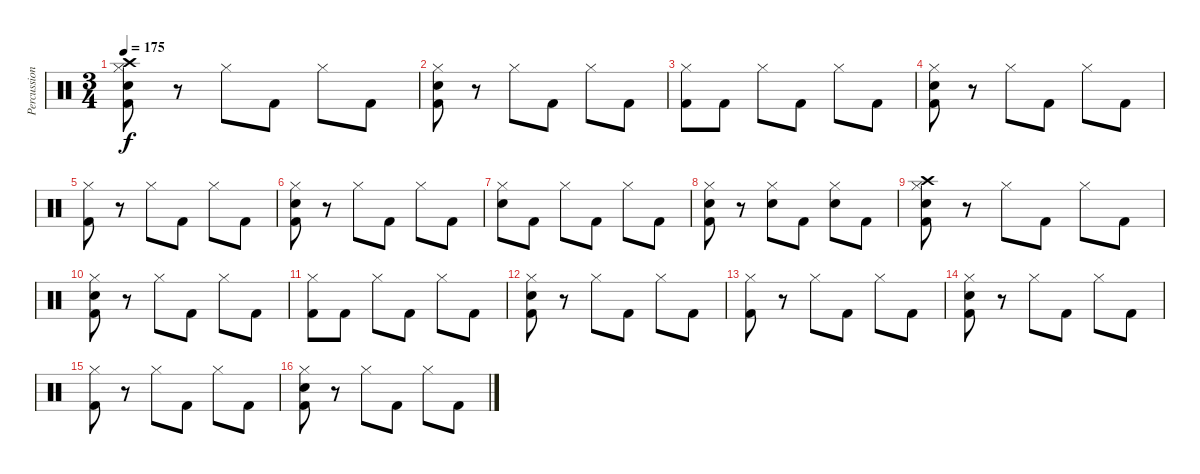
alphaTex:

\track ("Percussion" "Percussion") {instrument percussion}
\staff {score}
\articulation defaults
\ts (3 4)
\tempo 175
\clef neutral
\ks c
("Hi-Hat (closed)" "Crash high (hit)" "Electric Snare (hit)" "Kick (hit) 2").8{dy f} r.8 "Hi-Hat (closed)".8 "Kick (hit) 2".8 "Hi-Hat (closed)".8 "Kick (hit) 2".8 |
("Hi-Hat (closed)" "Electric Snare (hit)" "Kick (hit) 2").8 r.8 "Hi-Hat (closed)".8 "Kick (hit) 2".8 "Hi-Hat (closed)".8 "Kick (hit) 2".8 |
("Hi-Hat (closed)" "Kick (hit) 2").8 "Kick (hit) 2".8 "Hi-Hat (closed)".8 "Kick (hit) 2".8 "Hi-Hat (closed)".8 "Kick (hit) 2".8 |
("Hi-Hat (closed)" "Electric Snare (hit)" "Kick (hit) 2").8 r.8 "Hi-Hat (closed)".8 "Kick (hit) 2".8 "Hi-Hat (closed)".8 "Kick (hit) 2".8 |
("Hi-Hat (closed)" "Kick (hit) 2").8 r.8 "Hi-Hat (closed)".8 "Kick (hit) 2".8 "Hi-Hat (closed)".8 "Kick (hit) 2".8 |
("Hi-Hat (closed)" "Electric Snare (hit)" "Kick (hit) 2").8 r.8 "Hi-Hat (closed)".8 "Kick (hit) 2".8 "Hi-Hat (closed)".8 "Kick (hit) 2".8 |
("Hi-Hat (closed)" "Electric Snare (hit)").8 "Kick (hit) 2".8 "Hi-Hat (closed)".8 "Kick (hit) 2".8 "Hi-Hat (closed)".8 "Kick (hit) 2".8 |
("Hi-Hat (closed)" "Electric Snare (hit)" "Kick (hit) 2").8 r.8 ("Hi-Hat (closed)" "Electric Snare (hit)").8 "Kick (hit) 2".8 ("Hi-Hat (closed)" "Electric Snare (hit)").8 "Kick (hit) 2".8 |
("Hi-Hat (closed)" "Crash high (hit)" "Electric Snare (hit)" "Kick (hit) 2").8 r.8 "Hi-Hat (closed)".8 "Kick (hit) 2".8 "Hi-Hat (closed)".8 "Kick (hit) 2".8 |
("Hi-Hat (closed)" "Electric Snare (hit)" "Kick (hit) 2").8 r.8 "Hi-Hat (closed)".8 "Kick (hit) 2".8 "Hi-Hat (closed)".8 "Kick (hit) 2".8 |
("Hi-Hat (closed)" "Kick (hit) 2").8 "Kick (hit) 2".8 "Hi-Hat (closed)".8 "Kick (hit) 2".8 "Hi-Hat (closed)".8 "Kick (hit) 2".8 |
("Hi-Hat (closed)" "Electric Snare (hit)" "Kick (hit) 2").8 r.8 "Hi-Hat (closed)".8 "Kick (hit) 2".8 "Hi-Hat (closed)".8 "Kick (hit) 2".8 |
("Hi-Hat (closed)" "Kick (hit) 2").8 r.8 "Hi-Hat (closed)".8 "Kick (hit) 2".8 "Hi-Hat (closed)".8 "Kick (hit) 2".8 |
("Hi-Hat (closed)" "Electric Snare (hit)" "Kick (hit) 2").8 r.8 "Hi-Hat (closed)".8 "Kick (hit) 2".8 "Hi-Hat (closed)".8 "Kick (hit) 2".8 |
("Hi-Hat (closed)" "Kick (hit) 2").8 r.8 "Hi-Hat (closed)".8 "Kick (hit) 2".8 "Hi-Hat (closed)".8 "Kick (hit) 2".8 |
("Hi-Hat (closed)" "Electric Snare (hit)" "Kick (hit) 2").8 r.8 "Hi-Hat (closed)".8 "Kick (hit) 2".8 "Hi-Hat (closed)".8 "Kick (hit) 2".8
